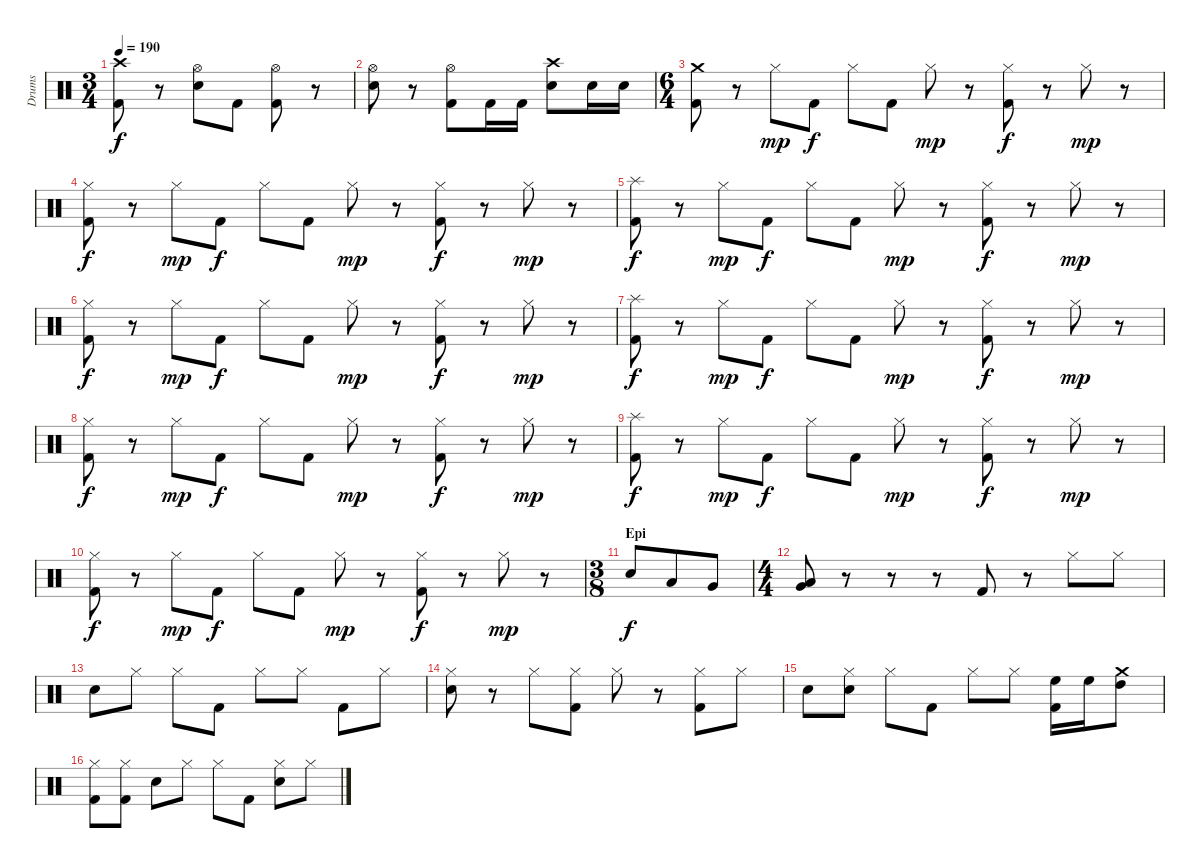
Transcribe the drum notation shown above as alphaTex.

\track ("Drums" "Drums") {instrument percussion}
\staff {score}
\articulation defaults
\ts (3 4)
\tempo 190
\clef neutral
\ks c
("Crash high (hit)" "Kick (hit) 2").8{dy f} r.8 ("Hi-Hat (open)" "Electric Snare (hit)").8 "Kick (hit) 2".8 ("Hi-Hat (open)" "Kick (hit) 2").8 r.8 |
("Hi-Hat (open)" "Electric Snare (hit)").8 r.8 ("Hi-Hat (open)" "Kick (hit) 2").8 "Kick (hit) 2".16 "Kick (hit) 2".16 ("Crash high (hit)" "Electric Snare (hit)").8 "Electric Snare (hit)".16 "Electric Snare (hit)".16 |
\ts (6 4)
("Crash medium (hit)" "Kick (hit) 2").8 r.8 "Hi-Hat (closed)".8{dy mp} "Kick (hit) 2".8{dy f} "Hi-Hat (closed)".8 "Kick (hit) 2".8 "Hi-Hat (closed)".8{dy mp} r.8 ("Hi-Hat (closed)" "Kick (hit) 2").8{dy f} r.8 "Hi-Hat (closed)".8{dy mp} r.8 |
("Hi-Hat (closed)" "Kick (hit) 2").8{dy f} r.8 "Hi-Hat (closed)".8{dy mp} "Kick (hit) 2".8{dy f} "Hi-Hat (closed)".8 "Kick (hit) 2".8 "Hi-Hat (closed)".8{dy mp} r.8 ("Hi-Hat (closed)" "Kick (hit) 2").8{dy f} r.8 "Hi-Hat (closed)".8{dy mp} r.8 |
("Splash (hit)" "Kick (hit) 2").8{dy f} r.8 "Hi-Hat (closed)".8{dy mp} "Kick (hit) 2".8{dy f} "Hi-Hat (closed)".8 "Kick (hit) 2".8 "Hi-Hat (closed)".8{dy mp} r.8 ("Hi-Hat (closed)" "Kick (hit) 2").8{dy f} r.8 "Hi-Hat (closed)".8{dy mp} r.8 |
("Hi-Hat (closed)" "Kick (hit) 2").8{dy f} r.8 "Hi-Hat (closed)".8{dy mp} "Kick (hit) 2".8{dy f} "Hi-Hat (closed)".8 "Kick (hit) 2".8 "Hi-Hat (closed)".8{dy mp} r.8 ("Hi-Hat (closed)" "Kick (hit) 2").8{dy f} r.8 "Hi-Hat (closed)".8{dy mp} r.8 |
("Splash (hit)" "Kick (hit) 2").8{dy f} r.8 "Hi-Hat (closed)".8{dy mp} "Kick (hit) 2".8{dy f} "Hi-Hat (closed)".8 "Kick (hit) 2".8 "Hi-Hat (closed)".8{dy mp} r.8 ("Hi-Hat (closed)" "Kick (hit) 2").8{dy f} r.8 "Hi-Hat (closed)".8{dy mp} r.8 |
("Hi-Hat (closed)" "Kick (hit) 2").8{dy f} r.8 "Hi-Hat (closed)".8{dy mp} "Kick (hit) 2".8{dy f} "Hi-Hat (closed)".8 "Kick (hit) 2".8 "Hi-Hat (closed)".8{dy mp} r.8 ("Hi-Hat (closed)" "Kick (hit) 2").8{dy f} r.8 "Hi-Hat (closed)".8{dy mp} r.8 |
("Splash (hit)" "Kick (hit) 2").8{dy f} r.8 "Hi-Hat (closed)".8{dy mp} "Kick (hit) 2".8{dy f} "Hi-Hat (closed)".8 "Kick (hit) 2".8 "Hi-Hat (closed)".8{dy mp} r.8 ("Hi-Hat (closed)" "Kick (hit) 2").8{dy f} r.8 "Hi-Hat (closed)".8{dy mp} r.8 |
("Hi-Hat (closed)" "Kick (hit) 2").8{dy f} r.8 "Hi-Hat (closed)".8{dy mp} "Kick (hit) 2".8{dy f} "Hi-Hat (closed)".8 "Kick (hit) 2".8 "Hi-Hat (closed)".8{dy mp} r.8 ("Hi-Hat (closed)" "Kick (hit) 2").8{dy f} r.8 "Hi-Hat (closed)".8{dy mp} r.8 |
\ts (3 8)
\section ("" "Epi")
"Electric Snare (hit)".8{dy f} "Low Tom (hit)".8 "Very Low Tom (hit)".8 |
\ts (4 4)
("Low Floor Tom (hit)" "Very Low Tom (hit)").8 r.8 r.8 r.8 "Kick (hit) 2".8 r.8 "Hi-Hat (closed)".8 "Hi-Hat (closed)".8 |
"Electric Snare (hit)".8 "Hi-Hat (closed)".8 "Hi-Hat (closed)".8 "Kick (hit) 2".8 "Hi-Hat (closed)".8 "Hi-Hat (closed)".8 "Kick (hit) 2".8 "Hi-Hat (closed)".8 |
("Hi-Hat (closed)" "Electric Snare (hit)").8 r.8 "Hi-Hat (closed)".8 ("Hi-Hat (closed)" "Kick (hit) 2").8 "Hi-Hat (closed)".8 r.8 ("Hi-Hat (closed)" "Kick (hit) 2").8 "Hi-Hat (closed)".8 |
"Electric Snare (hit)".8 ("Hi-Hat (closed)" "Electric Snare (hit)").8 "Hi-Hat (closed)".8 "Kick (hit) 2".8 "Hi-Hat (closed)".8 "Hi-Hat (closed)".8 ("High Floor Tom (hit)" "Kick (hit) 2").16 "High Floor Tom (hit)".16 ("Crash medium (hit)" "High Tom (hit)").8 |
("Hi-Hat (closed)" "Kick (hit) 2").8 ("Hi-Hat (closed)" "Kick (hit) 2").8 "Electric Snare (hit)".8 "Hi-Hat (closed)".8 "Hi-Hat (closed)".8 "Kick (hit) 2".8 ("Hi-Hat (closed)" "Electric Snare (hit)").8 "Hi-Hat (closed)".8
